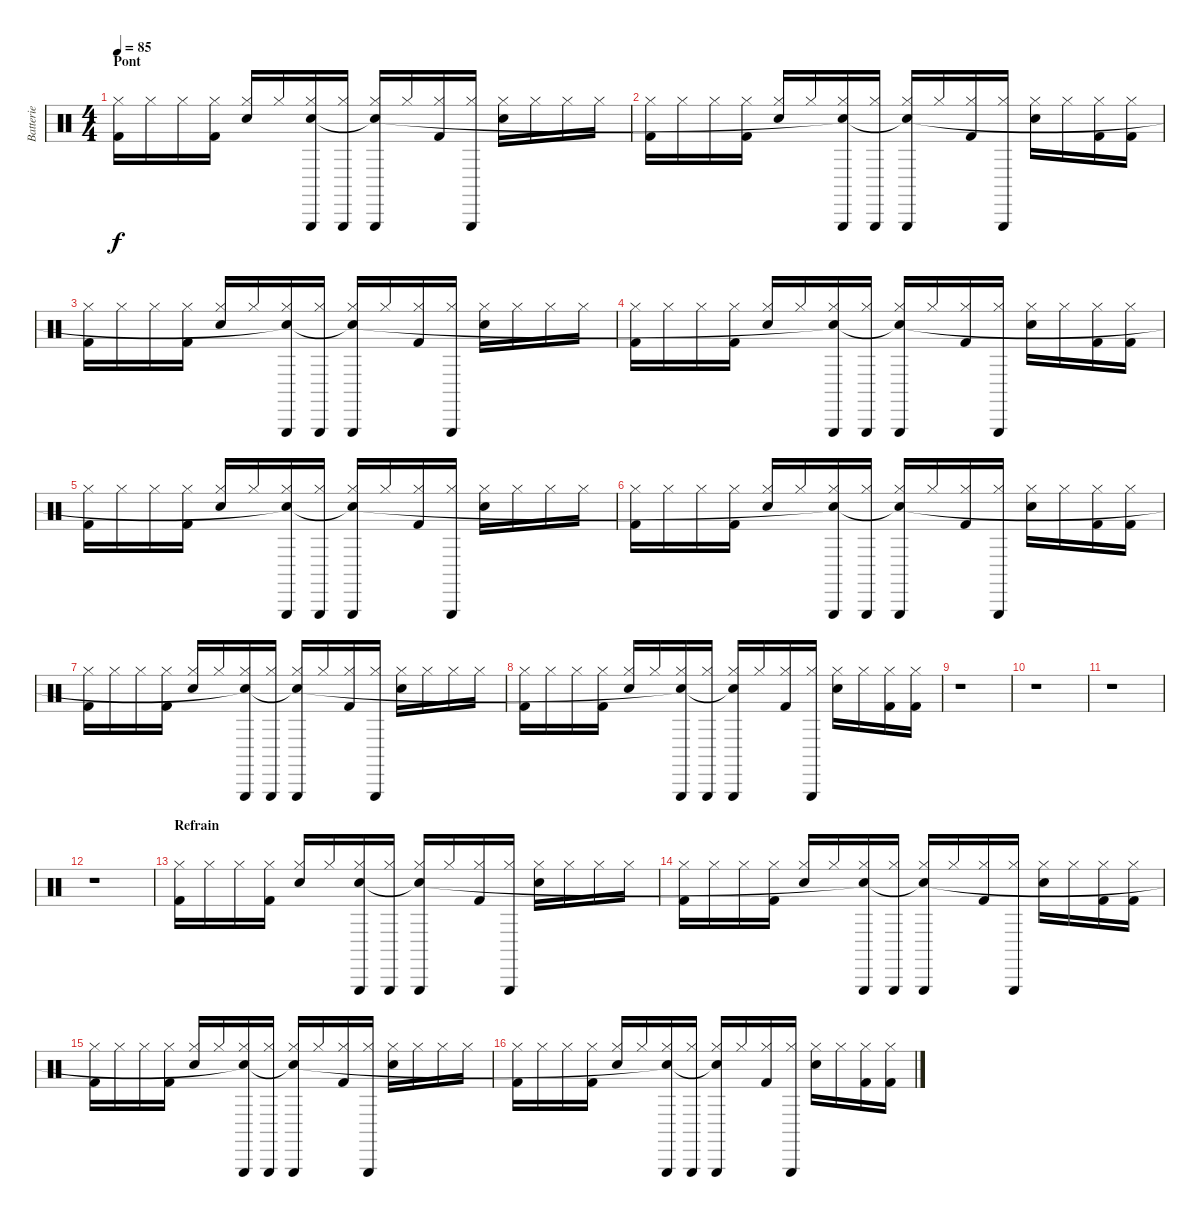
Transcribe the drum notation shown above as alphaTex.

\track ("Batterie" "Batterie") {instrument percussion}
\staff {score}
\articulation defaults
\ts (4 4)
\section ("" "Pont")
\tempo 85
\clef neutral
\ks c
("Hi-Hat (closed)" "Kick (hit) 2").16{dy f} "Hi-Hat (closed)".16 "Hi-Hat (closed)".16 ("Hi-Hat (closed)" "Kick (hit) 2").16 ("Hi-Hat (closed)" "Hand Clap (hit)").16 "Hi-Hat (closed)".16 ("Hi-Hat (closed)" "Triangle (hit)" "Snare (hit)"{t}).16 ("Hi-Hat (closed)" "Triangle (hit)").16 ("Hi-Hat (closed)" "Triangle (hit)" "Snare (hit)"{t}).16 "Hi-Hat (closed)".16 ("Hi-Hat (closed)" "Kick (hit) 2").16 ("Hi-Hat (closed)" "Triangle (hit)").16 ("Hi-Hat (closed)" "Hand Clap (hit)").16 "Hi-Hat (closed)".16 "Hi-Hat (closed)".16 "Hi-Hat (closed)".16 |
("Hi-Hat (closed)" "Kick (hit) 2").16 "Hi-Hat (closed)".16 "Hi-Hat (closed)".16 ("Hi-Hat (closed)" "Kick (hit) 2").16 ("Hi-Hat (closed)" "Hand Clap (hit)").16 "Hi-Hat (closed)".16 ("Hi-Hat (closed)" "Triangle (hit)" "Snare (hit)"{t}).16 ("Hi-Hat (closed)" "Triangle (hit)").16 ("Hi-Hat (closed)" "Triangle (hit)" "Snare (hit)"{t}).16 "Hi-Hat (closed)".16 ("Hi-Hat (closed)" "Kick (hit) 2").16 ("Hi-Hat (closed)" "Triangle (hit)").16 ("Hi-Hat (closed)" "Hand Clap (hit)").16 "Hi-Hat (closed)".16 ("Hi-Hat (closed)" "Kick (hit) 2").16 ("Hi-Hat (closed)" "Kick (hit) 2").16 |
("Hi-Hat (closed)" "Kick (hit) 2").16 "Hi-Hat (closed)".16 "Hi-Hat (closed)".16 ("Hi-Hat (closed)" "Kick (hit) 2").16 ("Hi-Hat (closed)" "Hand Clap (hit)").16 "Hi-Hat (closed)".16 ("Hi-Hat (closed)" "Triangle (hit)" "Snare (hit)"{t}).16 ("Hi-Hat (closed)" "Triangle (hit)").16 ("Hi-Hat (closed)" "Triangle (hit)" "Snare (hit)"{t}).16 "Hi-Hat (closed)".16 ("Hi-Hat (closed)" "Kick (hit) 2").16 ("Hi-Hat (closed)" "Triangle (hit)").16 ("Hi-Hat (closed)" "Hand Clap (hit)").16 "Hi-Hat (closed)".16 "Hi-Hat (closed)".16 "Hi-Hat (closed)".16 |
("Hi-Hat (closed)" "Kick (hit) 2").16 "Hi-Hat (closed)".16 "Hi-Hat (closed)".16 ("Hi-Hat (closed)" "Kick (hit) 2").16 ("Hi-Hat (closed)" "Hand Clap (hit)").16 "Hi-Hat (closed)".16 ("Hi-Hat (closed)" "Triangle (hit)" "Snare (hit)"{t}).16 ("Hi-Hat (closed)" "Triangle (hit)").16 ("Hi-Hat (closed)" "Triangle (hit)" "Snare (hit)"{t}).16 "Hi-Hat (closed)".16 ("Hi-Hat (closed)" "Kick (hit) 2").16 ("Hi-Hat (closed)" "Triangle (hit)").16 ("Hi-Hat (closed)" "Hand Clap (hit)").16 "Hi-Hat (closed)".16 ("Hi-Hat (closed)" "Kick (hit) 2").16 ("Hi-Hat (closed)" "Kick (hit) 2").16 |
("Hi-Hat (closed)" "Kick (hit) 2").16 "Hi-Hat (closed)".16 "Hi-Hat (closed)".16 ("Hi-Hat (closed)" "Kick (hit) 2").16 ("Hi-Hat (closed)" "Hand Clap (hit)").16 "Hi-Hat (closed)".16 ("Hi-Hat (closed)" "Triangle (hit)" "Snare (hit)"{t}).16 ("Hi-Hat (closed)" "Triangle (hit)").16 ("Hi-Hat (closed)" "Triangle (hit)" "Snare (hit)"{t}).16 "Hi-Hat (closed)".16 ("Hi-Hat (closed)" "Kick (hit) 2").16 ("Hi-Hat (closed)" "Triangle (hit)").16 ("Hi-Hat (closed)" "Hand Clap (hit)").16 "Hi-Hat (closed)".16 "Hi-Hat (closed)".16 "Hi-Hat (closed)".16 |
("Hi-Hat (closed)" "Kick (hit) 2").16 "Hi-Hat (closed)".16 "Hi-Hat (closed)".16 ("Hi-Hat (closed)" "Kick (hit) 2").16 ("Hi-Hat (closed)" "Hand Clap (hit)").16 "Hi-Hat (closed)".16 ("Hi-Hat (closed)" "Triangle (hit)" "Snare (hit)"{t}).16 ("Hi-Hat (closed)" "Triangle (hit)").16 ("Hi-Hat (closed)" "Triangle (hit)" "Snare (hit)"{t}).16 "Hi-Hat (closed)".16 ("Hi-Hat (closed)" "Kick (hit) 2").16 ("Hi-Hat (closed)" "Triangle (hit)").16 ("Hi-Hat (closed)" "Hand Clap (hit)").16 "Hi-Hat (closed)".16 ("Hi-Hat (closed)" "Kick (hit) 2").16 ("Hi-Hat (closed)" "Kick (hit) 2").16 |
("Hi-Hat (closed)" "Kick (hit) 2").16 "Hi-Hat (closed)".16 "Hi-Hat (closed)".16 ("Hi-Hat (closed)" "Kick (hit) 2").16 ("Hi-Hat (closed)" "Hand Clap (hit)").16 "Hi-Hat (closed)".16 ("Hi-Hat (closed)" "Triangle (hit)" "Snare (hit)"{t}).16 ("Hi-Hat (closed)" "Triangle (hit)").16 ("Hi-Hat (closed)" "Triangle (hit)" "Snare (hit)"{t}).16 "Hi-Hat (closed)".16 ("Hi-Hat (closed)" "Kick (hit) 2").16 ("Hi-Hat (closed)" "Triangle (hit)").16 ("Hi-Hat (closed)" "Hand Clap (hit)").16 "Hi-Hat (closed)".16 "Hi-Hat (closed)".16 "Hi-Hat (closed)".16 |
("Hi-Hat (closed)" "Kick (hit) 2").16 "Hi-Hat (closed)".16 "Hi-Hat (closed)".16 ("Hi-Hat (closed)" "Kick (hit) 2").16 ("Hi-Hat (closed)" "Hand Clap (hit)").16 "Hi-Hat (closed)".16 ("Hi-Hat (closed)" "Triangle (hit)" "Snare (hit)"{t}).16 ("Hi-Hat (closed)" "Triangle (hit)").16 ("Hi-Hat (closed)" "Triangle (hit)" "Snare (hit)"{t}).16 "Hi-Hat (closed)".16 ("Hi-Hat (closed)" "Kick (hit) 2").16 ("Hi-Hat (closed)" "Triangle (hit)").16 ("Hi-Hat (closed)" "Hand Clap (hit)").16 "Hi-Hat (closed)".16 ("Hi-Hat (closed)" "Kick (hit) 2").16 ("Hi-Hat (closed)" "Kick (hit) 2").16 |
r.1 |
r.1 |
r.1 |
r.1 |
\section ("" "Refrain")
("Hi-Hat (closed)" "Kick (hit) 2").16 "Hi-Hat (closed)".16 "Hi-Hat (closed)".16 ("Hi-Hat (closed)" "Kick (hit) 2").16 ("Hi-Hat (closed)" "Hand Clap (hit)").16 "Hi-Hat (closed)".16 ("Hi-Hat (closed)" "Triangle (hit)" "Snare (hit)").16 ("Hi-Hat (closed)" "Triangle (hit)").16 ("Hi-Hat (closed)" "Triangle (hit)" "Snare (hit)"{t}).16 "Hi-Hat (closed)".16 ("Hi-Hat (closed)" "Kick (hit) 2").16 ("Hi-Hat (closed)" "Triangle (hit)").16 ("Hi-Hat (closed)" "Hand Clap (hit)").16 "Hi-Hat (closed)".16 "Hi-Hat (closed)".16 "Hi-Hat (closed)".16 |
("Hi-Hat (closed)" "Kick (hit) 2").16 "Hi-Hat (closed)".16 "Hi-Hat (closed)".16 ("Hi-Hat (closed)" "Kick (hit) 2").16 ("Hi-Hat (closed)" "Hand Clap (hit)").16 "Hi-Hat (closed)".16 ("Hi-Hat (closed)" "Triangle (hit)" "Snare (hit)"{t}).16 ("Hi-Hat (closed)" "Triangle (hit)").16 ("Hi-Hat (closed)" "Triangle (hit)" "Snare (hit)"{t}).16 "Hi-Hat (closed)".16 ("Hi-Hat (closed)" "Kick (hit) 2").16 ("Hi-Hat (closed)" "Triangle (hit)").16 ("Hi-Hat (closed)" "Hand Clap (hit)").16 "Hi-Hat (closed)".16 ("Hi-Hat (closed)" "Kick (hit) 2").16 ("Hi-Hat (closed)" "Kick (hit) 2").16 |
("Hi-Hat (closed)" "Kick (hit) 2").16 "Hi-Hat (closed)".16 "Hi-Hat (closed)".16 ("Hi-Hat (closed)" "Kick (hit) 2").16 ("Hi-Hat (closed)" "Hand Clap (hit)").16 "Hi-Hat (closed)".16 ("Hi-Hat (closed)" "Triangle (hit)" "Snare (hit)"{t}).16 ("Hi-Hat (closed)" "Triangle (hit)").16 ("Hi-Hat (closed)" "Triangle (hit)" "Snare (hit)"{t}).16 "Hi-Hat (closed)".16 ("Hi-Hat (closed)" "Kick (hit) 2").16 ("Hi-Hat (closed)" "Triangle (hit)").16 ("Hi-Hat (closed)" "Hand Clap (hit)").16 "Hi-Hat (closed)".16 "Hi-Hat (closed)".16 "Hi-Hat (closed)".16 |
("Hi-Hat (closed)" "Kick (hit) 2").16 "Hi-Hat (closed)".16 "Hi-Hat (closed)".16 ("Hi-Hat (closed)" "Kick (hit) 2").16 ("Hi-Hat (closed)" "Hand Clap (hit)").16 "Hi-Hat (closed)".16 ("Hi-Hat (closed)" "Triangle (hit)" "Snare (hit)"{t}).16 ("Hi-Hat (closed)" "Triangle (hit)").16 ("Hi-Hat (closed)" "Triangle (hit)" "Snare (hit)"{t}).16 "Hi-Hat (closed)".16 ("Hi-Hat (closed)" "Kick (hit) 2").16 ("Hi-Hat (closed)" "Triangle (hit)").16 ("Hi-Hat (closed)" "Hand Clap (hit)").16 "Hi-Hat (closed)".16 ("Hi-Hat (closed)" "Kick (hit) 2").16 ("Hi-Hat (closed)" "Kick (hit) 2").16
